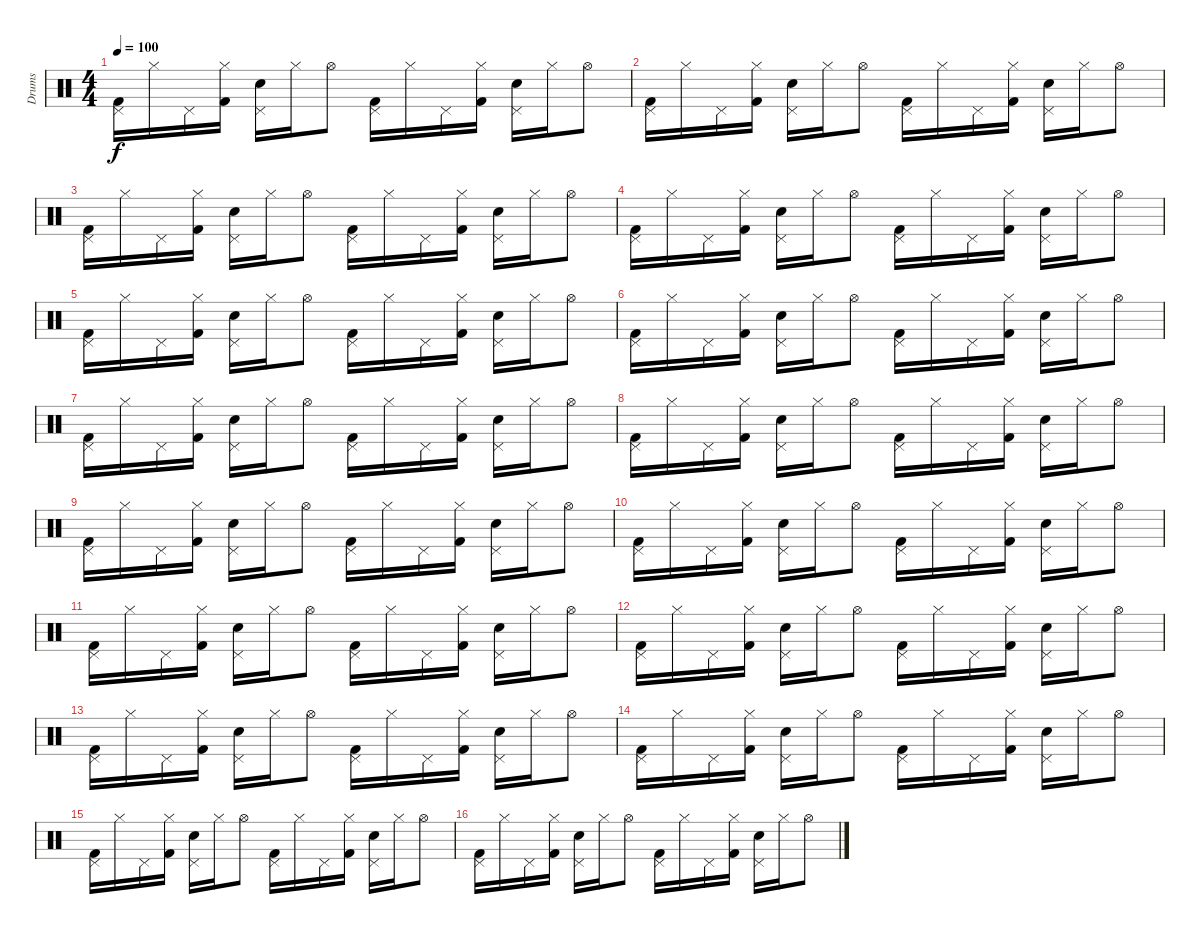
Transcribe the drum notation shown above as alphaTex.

\track ("Drums" "Drums") {instrument percussion}
\staff {score}
\articulation defaults
\ts (4 4)
\tempo 100
\clef neutral
\ks c
("Pedal Hi-Hat (hit)" "Kick (hit) 2").16{dy f} "Hi-Hat (closed)".16 "Pedal Hi-Hat (hit)".16 ("Hi-Hat (closed)" "Kick (hit) 2").16 ("Pedal Hi-Hat (hit)" "Electric Snare (hit)").16 "Hi-Hat (closed)".16 "Hi-Hat (open)".8 ("Pedal Hi-Hat (hit)" "Kick (hit) 2").16 "Hi-Hat (closed)".16 "Pedal Hi-Hat (hit)".16 ("Hi-Hat (closed)" "Kick (hit) 2").16 ("Pedal Hi-Hat (hit)" "Electric Snare (hit)").16 "Hi-Hat (closed)".16 "Hi-Hat (open)".8 |
("Pedal Hi-Hat (hit)" "Kick (hit) 2").16 "Hi-Hat (closed)".16 "Pedal Hi-Hat (hit)".16 ("Hi-Hat (closed)" "Kick (hit) 2").16 ("Pedal Hi-Hat (hit)" "Electric Snare (hit)").16 "Hi-Hat (closed)".16 "Hi-Hat (open)".8 ("Pedal Hi-Hat (hit)" "Kick (hit) 2").16 "Hi-Hat (closed)".16 "Pedal Hi-Hat (hit)".16 ("Hi-Hat (closed)" "Kick (hit) 2").16 ("Pedal Hi-Hat (hit)" "Electric Snare (hit)").16 "Hi-Hat (closed)".16 "Hi-Hat (open)".8 |
("Pedal Hi-Hat (hit)" "Kick (hit) 2").16 "Hi-Hat (closed)".16 "Pedal Hi-Hat (hit)".16 ("Hi-Hat (closed)" "Kick (hit) 2").16 ("Pedal Hi-Hat (hit)" "Electric Snare (hit)").16 "Hi-Hat (closed)".16 "Hi-Hat (open)".8 ("Pedal Hi-Hat (hit)" "Kick (hit) 2").16 "Hi-Hat (closed)".16 "Pedal Hi-Hat (hit)".16 ("Hi-Hat (closed)" "Kick (hit) 2").16 ("Pedal Hi-Hat (hit)" "Electric Snare (hit)").16 "Hi-Hat (closed)".16 "Hi-Hat (open)".8 |
("Pedal Hi-Hat (hit)" "Kick (hit) 2").16 "Hi-Hat (closed)".16 "Pedal Hi-Hat (hit)".16 ("Hi-Hat (closed)" "Kick (hit) 2").16 ("Pedal Hi-Hat (hit)" "Electric Snare (hit)").16 "Hi-Hat (closed)".16 "Hi-Hat (open)".8 ("Pedal Hi-Hat (hit)" "Kick (hit) 2").16 "Hi-Hat (closed)".16 "Pedal Hi-Hat (hit)".16 ("Hi-Hat (closed)" "Kick (hit) 2").16 ("Pedal Hi-Hat (hit)" "Electric Snare (hit)").16 "Hi-Hat (closed)".16 "Hi-Hat (open)".8 |
("Pedal Hi-Hat (hit)" "Kick (hit) 2").16 "Hi-Hat (closed)".16 "Pedal Hi-Hat (hit)".16 ("Hi-Hat (closed)" "Kick (hit) 2").16 ("Pedal Hi-Hat (hit)" "Electric Snare (hit)").16 "Hi-Hat (closed)".16 "Hi-Hat (open)".8 ("Pedal Hi-Hat (hit)" "Kick (hit) 2").16 "Hi-Hat (closed)".16 "Pedal Hi-Hat (hit)".16 ("Hi-Hat (closed)" "Kick (hit) 2").16 ("Pedal Hi-Hat (hit)" "Electric Snare (hit)").16 "Hi-Hat (closed)".16 "Hi-Hat (open)".8 |
("Pedal Hi-Hat (hit)" "Kick (hit) 2").16 "Hi-Hat (closed)".16 "Pedal Hi-Hat (hit)".16 ("Hi-Hat (closed)" "Kick (hit) 2").16 ("Pedal Hi-Hat (hit)" "Electric Snare (hit)").16 "Hi-Hat (closed)".16 "Hi-Hat (open)".8 ("Pedal Hi-Hat (hit)" "Kick (hit) 2").16 "Hi-Hat (closed)".16 "Pedal Hi-Hat (hit)".16 ("Hi-Hat (closed)" "Kick (hit) 2").16 ("Pedal Hi-Hat (hit)" "Electric Snare (hit)").16 "Hi-Hat (closed)".16 "Hi-Hat (open)".8 |
("Pedal Hi-Hat (hit)" "Kick (hit) 2").16 "Hi-Hat (closed)".16 "Pedal Hi-Hat (hit)".16 ("Hi-Hat (closed)" "Kick (hit) 2").16 ("Pedal Hi-Hat (hit)" "Electric Snare (hit)").16 "Hi-Hat (closed)".16 "Hi-Hat (open)".8 ("Pedal Hi-Hat (hit)" "Kick (hit) 2").16 "Hi-Hat (closed)".16 "Pedal Hi-Hat (hit)".16 ("Hi-Hat (closed)" "Kick (hit) 2").16 ("Pedal Hi-Hat (hit)" "Electric Snare (hit)").16 "Hi-Hat (closed)".16 "Hi-Hat (open)".8 |
("Pedal Hi-Hat (hit)" "Kick (hit) 2").16 "Hi-Hat (closed)".16 "Pedal Hi-Hat (hit)".16 ("Hi-Hat (closed)" "Kick (hit) 2").16 ("Pedal Hi-Hat (hit)" "Electric Snare (hit)").16 "Hi-Hat (closed)".16 "Hi-Hat (open)".8 ("Pedal Hi-Hat (hit)" "Kick (hit) 2").16 "Hi-Hat (closed)".16 "Pedal Hi-Hat (hit)".16 ("Hi-Hat (closed)" "Kick (hit) 2").16 ("Pedal Hi-Hat (hit)" "Electric Snare (hit)").16 "Hi-Hat (closed)".16 "Hi-Hat (open)".8 |
("Pedal Hi-Hat (hit)" "Kick (hit) 2").16 "Hi-Hat (closed)".16 "Pedal Hi-Hat (hit)".16 ("Hi-Hat (closed)" "Kick (hit) 2").16 ("Pedal Hi-Hat (hit)" "Electric Snare (hit)").16 "Hi-Hat (closed)".16 "Hi-Hat (open)".8 ("Pedal Hi-Hat (hit)" "Kick (hit) 2").16 "Hi-Hat (closed)".16 "Pedal Hi-Hat (hit)".16 ("Hi-Hat (closed)" "Kick (hit) 2").16 ("Pedal Hi-Hat (hit)" "Electric Snare (hit)").16 "Hi-Hat (closed)".16 "Hi-Hat (open)".8 |
("Pedal Hi-Hat (hit)" "Kick (hit) 2").16 "Hi-Hat (closed)".16 "Pedal Hi-Hat (hit)".16 ("Hi-Hat (closed)" "Kick (hit) 2").16 ("Pedal Hi-Hat (hit)" "Electric Snare (hit)").16 "Hi-Hat (closed)".16 "Hi-Hat (open)".8 ("Pedal Hi-Hat (hit)" "Kick (hit) 2").16 "Hi-Hat (closed)".16 "Pedal Hi-Hat (hit)".16 ("Hi-Hat (closed)" "Kick (hit) 2").16 ("Pedal Hi-Hat (hit)" "Electric Snare (hit)").16 "Hi-Hat (closed)".16 "Hi-Hat (open)".8 |
("Pedal Hi-Hat (hit)" "Kick (hit) 2").16 "Hi-Hat (closed)".16 "Pedal Hi-Hat (hit)".16 ("Hi-Hat (closed)" "Kick (hit) 2").16 ("Pedal Hi-Hat (hit)" "Electric Snare (hit)").16 "Hi-Hat (closed)".16 "Hi-Hat (open)".8 ("Pedal Hi-Hat (hit)" "Kick (hit) 2").16 "Hi-Hat (closed)".16 "Pedal Hi-Hat (hit)".16 ("Hi-Hat (closed)" "Kick (hit) 2").16 ("Pedal Hi-Hat (hit)" "Electric Snare (hit)").16 "Hi-Hat (closed)".16 "Hi-Hat (open)".8 |
("Pedal Hi-Hat (hit)" "Kick (hit) 2").16 "Hi-Hat (closed)".16 "Pedal Hi-Hat (hit)".16 ("Hi-Hat (closed)" "Kick (hit) 2").16 ("Pedal Hi-Hat (hit)" "Electric Snare (hit)").16 "Hi-Hat (closed)".16 "Hi-Hat (open)".8 ("Pedal Hi-Hat (hit)" "Kick (hit) 2").16 "Hi-Hat (closed)".16 "Pedal Hi-Hat (hit)".16 ("Hi-Hat (closed)" "Kick (hit) 2").16 ("Pedal Hi-Hat (hit)" "Electric Snare (hit)").16 "Hi-Hat (closed)".16 "Hi-Hat (open)".8 |
("Pedal Hi-Hat (hit)" "Kick (hit) 2").16 "Hi-Hat (closed)".16 "Pedal Hi-Hat (hit)".16 ("Hi-Hat (closed)" "Kick (hit) 2").16 ("Pedal Hi-Hat (hit)" "Electric Snare (hit)").16 "Hi-Hat (closed)".16 "Hi-Hat (open)".8 ("Pedal Hi-Hat (hit)" "Kick (hit) 2").16 "Hi-Hat (closed)".16 "Pedal Hi-Hat (hit)".16 ("Hi-Hat (closed)" "Kick (hit) 2").16 ("Pedal Hi-Hat (hit)" "Electric Snare (hit)").16 "Hi-Hat (closed)".16 "Hi-Hat (open)".8 |
("Pedal Hi-Hat (hit)" "Kick (hit) 2").16 "Hi-Hat (closed)".16 "Pedal Hi-Hat (hit)".16 ("Hi-Hat (closed)" "Kick (hit) 2").16 ("Pedal Hi-Hat (hit)" "Electric Snare (hit)").16 "Hi-Hat (closed)".16 "Hi-Hat (open)".8 ("Pedal Hi-Hat (hit)" "Kick (hit) 2").16 "Hi-Hat (closed)".16 "Pedal Hi-Hat (hit)".16 ("Hi-Hat (closed)" "Kick (hit) 2").16 ("Pedal Hi-Hat (hit)" "Electric Snare (hit)").16 "Hi-Hat (closed)".16 "Hi-Hat (open)".8 |
("Pedal Hi-Hat (hit)" "Kick (hit) 2").16 "Hi-Hat (closed)".16 "Pedal Hi-Hat (hit)".16 ("Hi-Hat (closed)" "Kick (hit) 2").16 ("Pedal Hi-Hat (hit)" "Electric Snare (hit)").16 "Hi-Hat (closed)".16 "Hi-Hat (open)".8 ("Pedal Hi-Hat (hit)" "Kick (hit) 2").16 "Hi-Hat (closed)".16 "Pedal Hi-Hat (hit)".16 ("Hi-Hat (closed)" "Kick (hit) 2").16 ("Pedal Hi-Hat (hit)" "Electric Snare (hit)").16 "Hi-Hat (closed)".16 "Hi-Hat (open)".8 |
("Pedal Hi-Hat (hit)" "Kick (hit) 2").16 "Hi-Hat (closed)".16 "Pedal Hi-Hat (hit)".16 ("Hi-Hat (closed)" "Kick (hit) 2").16 ("Pedal Hi-Hat (hit)" "Electric Snare (hit)").16 "Hi-Hat (closed)".16 "Hi-Hat (open)".8 ("Pedal Hi-Hat (hit)" "Kick (hit) 2").16 "Hi-Hat (closed)".16 "Pedal Hi-Hat (hit)".16 ("Hi-Hat (closed)" "Kick (hit) 2").16 ("Pedal Hi-Hat (hit)" "Electric Snare (hit)").16 "Hi-Hat (closed)".16 "Hi-Hat (open)".8
